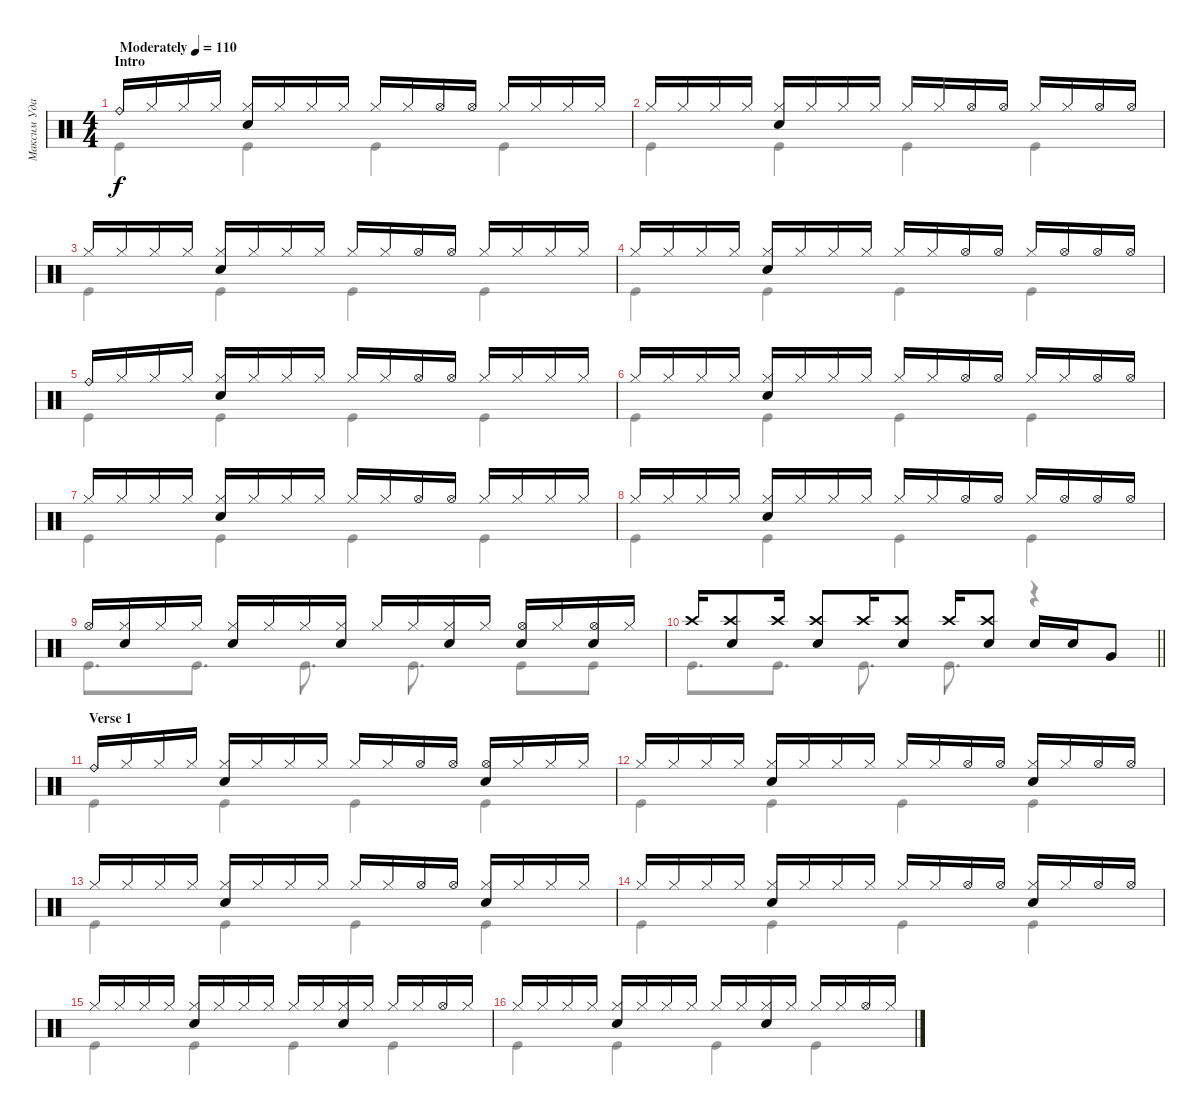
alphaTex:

\track ("Максим Удалов" "Максим Уда") {instrument percussion}
\staff {score}
\articulation defaults
\voice
\ts (4 4)
\section ("" "Intro")
\tempo (110 "Moderately")
\clef neutral
\ks c "Ride (bell)".16{dy f} "Hi-Hat (closed)".16 "Hi-Hat (closed)".16 "Hi-Hat (closed)".16
("Hi-Hat (closed)" "Snare (hit) 2").16 "Hi-Hat (closed)".16 "Hi-Hat (closed)".16 "Hi-Hat (closed)".16 "Hi-Hat (closed)".16 "Hi-Hat (closed)".16 "Hi-Hat (open)".16 "Hi-Hat (open)".16 "Hi-Hat (closed)".16 "Hi-Hat (closed)".16 "Hi-Hat (closed)".16 "Hi-Hat (closed)".16 |
"Hi-Hat (closed)".16 "Hi-Hat (closed)".16 "Hi-Hat (closed)".16 "Hi-Hat (closed)".16 ("Hi-Hat (closed)" "Snare (hit) 2").16 "Hi-Hat (closed)".16 "Hi-Hat (closed)".16 "Hi-Hat (closed)".16 "Hi-Hat (closed)".16 "Hi-Hat (closed)".16 "Hi-Hat (open)".16 "Hi-Hat (open)".16 "Hi-Hat (closed)".16 "Hi-Hat (closed)".16 "Hi-Hat (open)".16 "Hi-Hat (open)".16 |
"Hi-Hat (closed)".16 "Hi-Hat (closed)".16 "Hi-Hat (closed)".16 "Hi-Hat (closed)".16 ("Hi-Hat (closed)" "Snare (hit) 2").16 "Hi-Hat (closed)".16 "Hi-Hat (closed)".16 "Hi-Hat (closed)".16 "Hi-Hat (closed)".16 "Hi-Hat (closed)".16 "Hi-Hat (open)".16 "Hi-Hat (open)".16 "Hi-Hat (closed)".16 "Hi-Hat (closed)".16 "Hi-Hat (closed)".16 "Hi-Hat (closed)".16 |
"Hi-Hat (closed)".16 "Hi-Hat (closed)".16 "Hi-Hat (closed)".16 "Hi-Hat (closed)".16 ("Hi-Hat (closed)" "Snare (hit) 2").16 "Hi-Hat (closed)".16 "Hi-Hat (closed)".16 "Hi-Hat (closed)".16 "Hi-Hat (closed)".16 "Hi-Hat (closed)".16 "Hi-Hat (open)".16 "Hi-Hat (open)".16 "Hi-Hat (closed)".16 "Hi-Hat (open)".16 "Hi-Hat (open)".16 "Hi-Hat (open)".16 |
"Ride (bell)".16 "Hi-Hat (closed)".16 "Hi-Hat (closed)".16 "Hi-Hat (closed)".16 ("Hi-Hat (closed)" "Snare (hit) 2").16 "Hi-Hat (closed)".16 "Hi-Hat (closed)".16 "Hi-Hat (closed)".16 "Hi-Hat (closed)".16 "Hi-Hat (closed)".16 "Hi-Hat (open)".16 "Hi-Hat (open)".16 "Hi-Hat (closed)".16 "Hi-Hat (closed)".16 "Hi-Hat (closed)".16 "Hi-Hat (closed)".16 |
"Hi-Hat (closed)".16 "Hi-Hat (closed)".16 "Hi-Hat (closed)".16 "Hi-Hat (closed)".16 ("Hi-Hat (closed)" "Snare (hit) 2").16 "Hi-Hat (closed)".16 "Hi-Hat (closed)".16 "Hi-Hat (closed)".16 "Hi-Hat (closed)".16 "Hi-Hat (closed)".16 "Hi-Hat (open)".16 "Hi-Hat (open)".16 "Hi-Hat (closed)".16 "Hi-Hat (closed)".16 "Hi-Hat (open)".16 "Hi-Hat (open)".16 |
"Hi-Hat (closed)".16 "Hi-Hat (closed)".16 "Hi-Hat (closed)".16 "Hi-Hat (closed)".16 ("Hi-Hat (closed)" "Snare (hit) 2").16 "Hi-Hat (closed)".16 "Hi-Hat (closed)".16 "Hi-Hat (closed)".16 "Hi-Hat (closed)".16 "Hi-Hat (closed)".16 "Hi-Hat (open)".16 "Hi-Hat (open)".16 "Hi-Hat (closed)".16 "Hi-Hat (closed)".16 "Hi-Hat (closed)".16 "Hi-Hat (closed)".16 |
"Hi-Hat (closed)".16 "Hi-Hat (closed)".16 "Hi-Hat (closed)".16 "Hi-Hat (closed)".16 ("Hi-Hat (closed)" "Snare (hit) 2").16 "Hi-Hat (closed)".16 "Hi-Hat (closed)".16 "Hi-Hat (closed)".16 "Hi-Hat (closed)".16 "Hi-Hat (closed)".16 "Hi-Hat (open)".16 "Hi-Hat (open)".16 "Hi-Hat (closed)".16 "Hi-Hat (open)".16 "Hi-Hat (open)".16 "Hi-Hat (open)".16 |
"Hi-Hat (open)".16 ("Hi-Hat (closed)" "Snare (hit) 2").16 "Hi-Hat (closed)".16 "Hi-Hat (closed)".16 ("Hi-Hat (closed)" "Snare (hit) 2").16 "Hi-Hat (closed)".16 "Hi-Hat (closed)".16 ("Hi-Hat (closed)" "Snare (hit) 2").16 "Hi-Hat (closed)".16 "Hi-Hat (closed)".16 ("Hi-Hat (closed)" "Snare (hit) 2").16 "Hi-Hat (closed)".16 ("Hi-Hat (open)" "Snare (hit) 2").16 "Hi-Hat (closed)".16 ("Hi-Hat (open)" "Snare (hit) 2").16 "Hi-Hat (closed)".16 |
\barLineRight lightlight "Crash high (hit)".16
("Crash high (hit)" "Snare (hit) 2").8 "Crash high (hit)".16 ("Crash high (hit)" "Snare (hit) 2").8 "Crash high (hit)".16 ("Crash high (hit)" "Snare (hit) 2").8 "Crash high (hit)".16 ("Crash high (hit)" "Snare (hit) 2").8 "Snare (hit) 2".16 "Snare (hit) 2".16 "Very Low Tom (hit)".8 |
\section ("" "Verse 1")
"Ride (bell)".16 "Hi-Hat (closed)".16 "Hi-Hat (closed)".16 "Hi-Hat (closed)".16 ("Hi-Hat (closed)" "Snare (hit) 2").16 "Hi-Hat (closed)".16 "Hi-Hat (closed)".16 "Hi-Hat (closed)".16 "Hi-Hat (closed)".16 "Hi-Hat (closed)".16 "Hi-Hat (open)".16 "Hi-Hat (open)".16 ("Hi-Hat (open)" "Snare (hit) 2").16 "Hi-Hat (closed)".16 "Hi-Hat (closed)".16 "Hi-Hat (closed)".16 |
"Hi-Hat (closed)".16 "Hi-Hat (closed)".16 "Hi-Hat (closed)".16 "Hi-Hat (closed)".16 ("Hi-Hat (closed)" "Snare (hit) 2").16 "Hi-Hat (closed)".16 "Hi-Hat (closed)".16 "Hi-Hat (closed)".16 "Hi-Hat (closed)".16 "Hi-Hat (closed)".16 "Hi-Hat (open)".16 "Hi-Hat (open)".16 ("Snare (hit) 2" "Hi-Hat (closed)").16 "Hi-Hat (closed)".16 "Hi-Hat (open)".16 "Hi-Hat (open)".16 |
"Hi-Hat (closed)".16 "Hi-Hat (closed)".16 "Hi-Hat (closed)".16 "Hi-Hat (closed)".16 ("Hi-Hat (closed)" "Snare (hit) 2").16 "Hi-Hat (closed)".16 "Hi-Hat (closed)".16 "Hi-Hat (closed)".16 "Hi-Hat (closed)".16 "Hi-Hat (closed)".16 "Hi-Hat (open)".16 "Hi-Hat (open)".16 ("Snare (hit) 2" "Hi-Hat (closed)").16 "Hi-Hat (closed)".16 "Hi-Hat (closed)".16 "Hi-Hat (closed)".16 |
"Hi-Hat (closed)".16 "Hi-Hat (closed)".16 "Hi-Hat (closed)".16 "Hi-Hat (closed)".16 ("Hi-Hat (closed)" "Snare (hit) 2").16 "Hi-Hat (closed)".16 "Hi-Hat (closed)".16 "Hi-Hat (closed)".16 "Hi-Hat (closed)".16 "Hi-Hat (closed)".16 "Hi-Hat (open)".16 "Hi-Hat (open)".16 ("Snare (hit) 2" "Hi-Hat (closed)").16 "Hi-Hat (closed)".16 "Hi-Hat (open)".16 "Hi-Hat (open)".16 |
"Hi-Hat (closed)".16 "Hi-Hat (closed)".16 "Hi-Hat (closed)".16 "Hi-Hat (closed)".16 ("Hi-Hat (closed)" "Snare (hit) 2").16 "Hi-Hat (closed)".16 "Hi-Hat (closed)".16 "Hi-Hat (closed)".16 "Hi-Hat (closed)".16 "Hi-Hat (closed)".16 ("Hi-Hat (closed)" "Snare (hit) 2").16 "Hi-Hat (closed)".16 "Hi-Hat (closed)".16 "Hi-Hat (closed)".16 "Hi-Hat (open)".16 "Hi-Hat (closed)".16 |
"Hi-Hat (closed)".16 "Hi-Hat (closed)".16 "Hi-Hat (closed)".16 "Hi-Hat (closed)".16 ("Hi-Hat (closed)" "Snare (hit) 2").16 "Hi-Hat (closed)".16 "Hi-Hat (closed)".16 "Hi-Hat (closed)".16 "Hi-Hat (closed)".16 "Hi-Hat (closed)".16 ("Hi-Hat (closed)" "Snare (hit) 2").16 "Hi-Hat (closed)".16 "Hi-Hat (closed)".16 "Hi-Hat (closed)".16 "Hi-Hat (open)".16 "Hi-Hat (closed)".16
\voice
\clef neutral
\ottava regular
\simile none
\ks c "Kick (hit)".4{dy f} "Kick (hit)".4 "Kick (hit)".4 "Kick (hit)".4
|
"Kick (hit)".4 "Kick (hit)".4 "Kick (hit)".4 "Kick (hit)".4 |
"Kick (hit)".4 "Kick (hit)".4 "Kick (hit)".4 "Kick (hit)".4 |
"Kick (hit)".4 "Kick (hit)".4 "Kick (hit)".4 "Kick (hit)".4 |
"Kick (hit)".4 "Kick (hit)".4 "Kick (hit)".4 "Kick (hit)".4 |
"Kick (hit)".4 "Kick (hit)".4 "Kick (hit)".4 "Kick (hit)".4 |
"Kick (hit)".4 "Kick (hit)".4 "Kick (hit)".4 "Kick (hit)".4 |
"Kick (hit)".4 "Kick (hit)".4 "Kick (hit)".4 "Kick (hit)".4 |
"Kick (hit)".8{d} "Kick (hit)".8{d} "Kick (hit)".8{d} "Kick (hit)".8{d} "Kick (hit)".8 "Kick (hit)".8 |
\barLineRight lightlight "Kick (hit)".8{d} "Kick (hit)".8{d} "Kick (hit)".8{d} "Kick (hit)".8{d}
r.4 |
"Kick (hit)".4 "Kick (hit)".4 "Kick (hit)".4 "Kick (hit)".4 |
"Kick (hit)".4 "Kick (hit)".4 "Kick (hit)".4 "Kick (hit)".4 |
"Kick (hit)".4 "Kick (hit)".4 "Kick (hit)".4 "Kick (hit)".4 |
"Kick (hit)".4 "Kick (hit)".4 "Kick (hit)".4 "Kick (hit)".4 |
"Kick (hit)".4 "Kick (hit)".4 "Kick (hit)".4 "Kick (hit)".4 |
"Kick (hit)".4 "Kick (hit)".4 "Kick (hit)".4 "Kick (hit)".4
